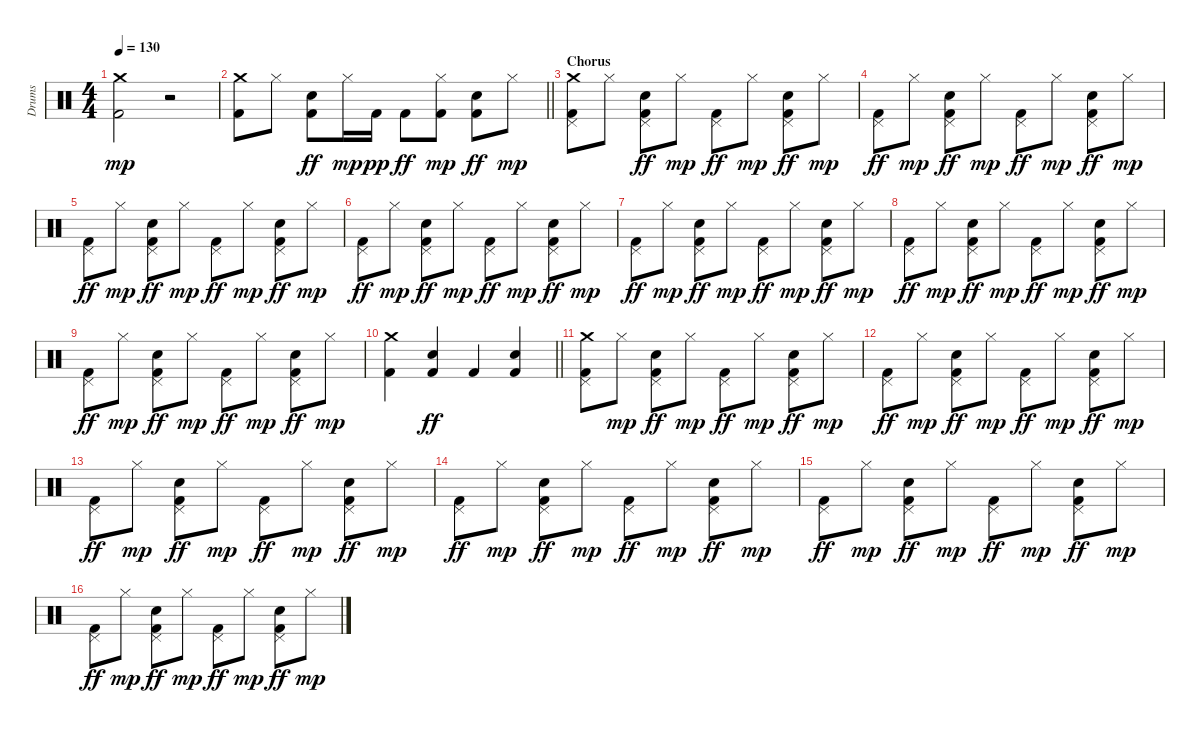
\track ("Drums" "Drums") {instrument percussion}
\staff {score}
\articulation defaults
\ts (4 4)
\tempo 130
\clef neutral
\ks c
("Kick (hit) 2" "Crash medium (hit)").2{dy mp} r.2 |
\barLineRight lightlight
("Kick (hit) 2" "Crash medium (hit)").8 "Hi-Hat (closed)".8 ("Hand Clap (hit)" "Kick (hit) 2").8{dy ff} "Hi-Hat (closed)".16{dy mp} "Kick (hit) 2".16{dy pp} "Kick (hit) 2".8{dy ff} ("Kick (hit) 2" "Hi-Hat (closed)").8{dy mp} ("Hand Clap (hit)" "Kick (hit) 2").8{dy ff} "Hi-Hat (closed)".8{dy mp} |
\section ("" "Chorus")
("Pedal Hi-Hat (hit)" "Kick (hit) 2" "Crash medium (hit)").8 "Hi-Hat (closed)".8 ("Hand Clap (hit)" "Pedal Hi-Hat (hit)" "Kick (hit) 2").8{dy ff} "Hi-Hat (closed)".8{dy mp} ("Pedal Hi-Hat (hit)" "Kick (hit) 2").8{dy ff} "Hi-Hat (closed)".8{dy mp} ("Hand Clap (hit)" "Pedal Hi-Hat (hit)" "Kick (hit) 2").8{dy ff} "Hi-Hat (closed)".8{dy mp} |
("Pedal Hi-Hat (hit)" "Kick (hit) 2").8{dy ff} "Hi-Hat (closed)".8{dy mp} ("Hand Clap (hit)" "Pedal Hi-Hat (hit)" "Kick (hit) 2").8{dy ff} "Hi-Hat (closed)".8{dy mp} ("Pedal Hi-Hat (hit)" "Kick (hit) 2").8{dy ff} "Hi-Hat (closed)".8{dy mp} ("Hand Clap (hit)" "Pedal Hi-Hat (hit)" "Kick (hit) 2").8{dy ff} "Hi-Hat (closed)".8{dy mp} |
("Pedal Hi-Hat (hit)" "Kick (hit) 2").8{dy ff} "Hi-Hat (closed)".8{dy mp} ("Hand Clap (hit)" "Pedal Hi-Hat (hit)" "Kick (hit) 2").8{dy ff} "Hi-Hat (closed)".8{dy mp} ("Pedal Hi-Hat (hit)" "Kick (hit) 2").8{dy ff} "Hi-Hat (closed)".8{dy mp} ("Hand Clap (hit)" "Pedal Hi-Hat (hit)" "Kick (hit) 2").8{dy ff} "Hi-Hat (closed)".8{dy mp} |
("Pedal Hi-Hat (hit)" "Kick (hit) 2").8{dy ff} "Hi-Hat (closed)".8{dy mp} ("Hand Clap (hit)" "Pedal Hi-Hat (hit)" "Kick (hit) 2").8{dy ff} "Hi-Hat (closed)".8{dy mp} ("Pedal Hi-Hat (hit)" "Kick (hit) 2").8{dy ff} "Hi-Hat (closed)".8{dy mp} ("Hand Clap (hit)" "Pedal Hi-Hat (hit)" "Kick (hit) 2").8{dy ff} "Hi-Hat (closed)".8{dy mp} |
("Pedal Hi-Hat (hit)" "Kick (hit) 2").8{dy ff} "Hi-Hat (closed)".8{dy mp} ("Hand Clap (hit)" "Pedal Hi-Hat (hit)" "Kick (hit) 2").8{dy ff} "Hi-Hat (closed)".8{dy mp} ("Pedal Hi-Hat (hit)" "Kick (hit) 2").8{dy ff} "Hi-Hat (closed)".8{dy mp} ("Hand Clap (hit)" "Pedal Hi-Hat (hit)" "Kick (hit) 2").8{dy ff} "Hi-Hat (closed)".8{dy mp} |
("Pedal Hi-Hat (hit)" "Kick (hit) 2").8{dy ff} "Hi-Hat (closed)".8{dy mp} ("Hand Clap (hit)" "Pedal Hi-Hat (hit)" "Kick (hit) 2").8{dy ff} "Hi-Hat (closed)".8{dy mp} ("Pedal Hi-Hat (hit)" "Kick (hit) 2").8{dy ff} "Hi-Hat (closed)".8{dy mp} ("Hand Clap (hit)" "Pedal Hi-Hat (hit)" "Kick (hit) 2").8{dy ff} "Hi-Hat (closed)".8{dy mp} |
("Pedal Hi-Hat (hit)" "Kick (hit) 2").8{dy ff} "Hi-Hat (closed)".8{dy mp} ("Hand Clap (hit)" "Pedal Hi-Hat (hit)" "Kick (hit) 2").8{dy ff} "Hi-Hat (closed)".8{dy mp} ("Pedal Hi-Hat (hit)" "Kick (hit) 2").8{dy ff} "Hi-Hat (closed)".8{dy mp} ("Hand Clap (hit)" "Pedal Hi-Hat (hit)" "Kick (hit) 2").8{dy ff} "Hi-Hat (closed)".8{dy mp} |
\barLineRight lightlight
("Kick (hit) 2" "Crash medium (hit)").4 ("Hand Clap (hit)" "Kick (hit) 2").4{dy ff} "Kick (hit) 2".4 ("Hand Clap (hit)" "Kick (hit) 2").4 |
("Crash medium (hit)" "Pedal Hi-Hat (hit)" "Kick (hit) 2").8 "Hi-Hat (closed)".8{dy mp} ("Hand Clap (hit)" "Pedal Hi-Hat (hit)" "Kick (hit) 2").8{dy ff} "Hi-Hat (closed)".8{dy mp} ("Pedal Hi-Hat (hit)" "Kick (hit) 2").8{dy ff} "Hi-Hat (closed)".8{dy mp} ("Hand Clap (hit)" "Pedal Hi-Hat (hit)" "Kick (hit) 2").8{dy ff} "Hi-Hat (closed)".8{dy mp} |
("Pedal Hi-Hat (hit)" "Kick (hit) 2").8{dy ff} "Hi-Hat (closed)".8{dy mp} ("Hand Clap (hit)" "Pedal Hi-Hat (hit)" "Kick (hit) 2").8{dy ff} "Hi-Hat (closed)".8{dy mp} ("Pedal Hi-Hat (hit)" "Kick (hit) 2").8{dy ff} "Hi-Hat (closed)".8{dy mp} ("Hand Clap (hit)" "Pedal Hi-Hat (hit)" "Kick (hit) 2").8{dy ff} "Hi-Hat (closed)".8{dy mp} |
("Pedal Hi-Hat (hit)" "Kick (hit) 2").8{dy ff} "Hi-Hat (closed)".8{dy mp} ("Hand Clap (hit)" "Pedal Hi-Hat (hit)" "Kick (hit) 2").8{dy ff} "Hi-Hat (closed)".8{dy mp} ("Pedal Hi-Hat (hit)" "Kick (hit) 2").8{dy ff} "Hi-Hat (closed)".8{dy mp} ("Hand Clap (hit)" "Pedal Hi-Hat (hit)" "Kick (hit) 2").8{dy ff} "Hi-Hat (closed)".8{dy mp} |
("Pedal Hi-Hat (hit)" "Kick (hit) 2").8{dy ff} "Hi-Hat (closed)".8{dy mp} ("Hand Clap (hit)" "Pedal Hi-Hat (hit)" "Kick (hit) 2").8{dy ff} "Hi-Hat (closed)".8{dy mp} ("Pedal Hi-Hat (hit)" "Kick (hit) 2").8{dy ff} "Hi-Hat (closed)".8{dy mp} ("Hand Clap (hit)" "Pedal Hi-Hat (hit)" "Kick (hit) 2").8{dy ff} "Hi-Hat (closed)".8{dy mp} |
("Pedal Hi-Hat (hit)" "Kick (hit) 2").8{dy ff} "Hi-Hat (closed)".8{dy mp} ("Hand Clap (hit)" "Pedal Hi-Hat (hit)" "Kick (hit) 2").8{dy ff} "Hi-Hat (closed)".8{dy mp} ("Pedal Hi-Hat (hit)" "Kick (hit) 2").8{dy ff} "Hi-Hat (closed)".8{dy mp} ("Hand Clap (hit)" "Pedal Hi-Hat (hit)" "Kick (hit) 2").8{dy ff} "Hi-Hat (closed)".8{dy mp} |
("Pedal Hi-Hat (hit)" "Kick (hit) 2").8{dy ff} "Hi-Hat (closed)".8{dy mp} ("Hand Clap (hit)" "Pedal Hi-Hat (hit)" "Kick (hit) 2").8{dy ff} "Hi-Hat (closed)".8{dy mp} ("Pedal Hi-Hat (hit)" "Kick (hit) 2").8{dy ff} "Hi-Hat (closed)".8{dy mp} ("Hand Clap (hit)" "Pedal Hi-Hat (hit)" "Kick (hit) 2").8{dy ff} "Hi-Hat (closed)".8{dy mp}
